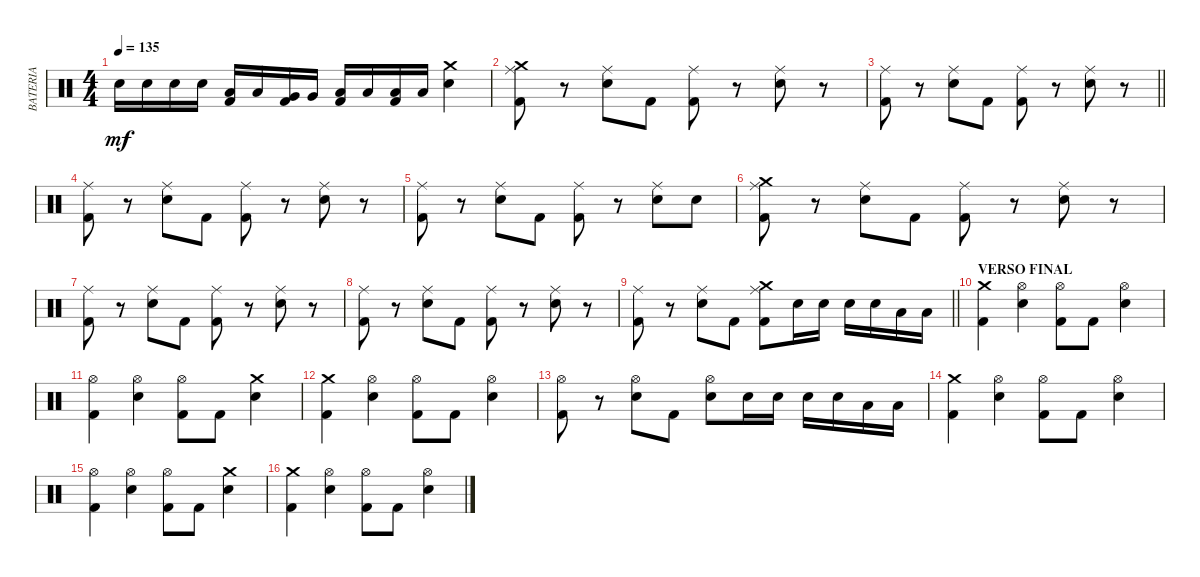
\track ("BATERIA" "BATERIA") {instrument percussion}
\staff {score}
\articulation defaults
\ts (4 4)
\tempo 135
\clef neutral
\ks c "Electric Snare (hit)".16{dy mf} "Electric Snare (hit)".16 "Electric Snare (hit)".16 "Electric Snare (hit)".16
("Low Tom (hit)" "Kick (hit) 2").16 "Low Tom (hit)".16 ("Very Low Tom (hit)" "Kick (hit) 2").16 "Very Low Tom (hit)".16 ("Low Floor Tom (hit)" "Kick (hit) 2").16 "Low Floor Tom (hit)".16 ("Low Floor Tom (hit)" "Kick (hit) 2").16 "Low Floor Tom (hit)".16 ("Crash medium (hit)" "Electric Snare (hit)").4 |
("Ride (middle)" "Kick (hit) 2" "Crash medium (hit)").8 r.8 ("Ride (middle)" "Electric Snare (hit)").8 "Kick (hit) 2".8 ("Ride (middle)" "Kick (hit) 2").8 r.8 ("Ride (middle)" "Electric Snare (hit)").8 r.8 |
\barLineRight lightlight
("Ride (middle)" "Kick (hit) 2").8 r.8 ("Ride (middle)" "Electric Snare (hit)").8 "Kick (hit) 2".8 ("Ride (middle)" "Kick (hit) 2").8 r.8 ("Ride (middle)" "Electric Snare (hit)").8 r.8 |
("Ride (middle)" "Kick (hit) 2").8 r.8 ("Ride (middle)" "Electric Snare (hit)").8 "Kick (hit) 2".8 ("Ride (middle)" "Kick (hit) 2").8 r.8 ("Ride (middle)" "Electric Snare (hit)").8 r.8 |
("Ride (middle)" "Kick (hit) 2").8 r.8 ("Ride (middle)" "Electric Snare (hit)").8 "Kick (hit) 2".8 ("Ride (middle)" "Kick (hit) 2").8 r.8 ("Ride (middle)" "Electric Snare (hit)").8 "Electric Snare (hit)".8 |
("Crash medium (hit)" "Ride (middle)" "Kick (hit) 2").8 r.8 ("Ride (middle)" "Electric Snare (hit)").8 "Kick (hit) 2".8 ("Ride (middle)" "Kick (hit) 2").8 r.8 ("Ride (middle)" "Electric Snare (hit)").8 r.8 |
("Ride (middle)" "Kick (hit) 2").8 r.8 ("Ride (middle)" "Electric Snare (hit)").8 "Kick (hit) 2".8 ("Ride (middle)" "Kick (hit) 2").8 r.8 ("Ride (middle)" "Electric Snare (hit)").8 r.8 |
("Ride (middle)" "Kick (hit) 2").8 r.8 ("Ride (middle)" "Electric Snare (hit)").8 "Kick (hit) 2".8 ("Ride (middle)" "Kick (hit) 2").8 r.8 ("Ride (middle)" "Electric Snare (hit)").8 r.8 |
\barLineRight lightlight
("Ride (middle)" "Kick (hit) 2").8 r.8 ("Ride (middle)" "Electric Snare (hit)").8 "Kick (hit) 2".8 ("Crash medium (hit)" "Ride (middle)" "Kick (hit) 2").8 "Electric Snare (hit)".16 "Electric Snare (hit)".16 "Electric Snare (hit)".16 "Electric Snare (hit)".16 "Low Tom (hit)".16 "Low Floor Tom (hit)".16 |
\section ("" "VERSO FINAL")
("Crash medium (hit)" "Kick (hit) 2").4 ("Hi-Hat (open)" "Electric Snare (hit)").4 ("Hi-Hat (open)" "Kick (hit) 2").8 "Kick (hit) 2".8 ("Hi-Hat (open)" "Electric Snare (hit)").4 |
("Hi-Hat (open)" "Kick (hit) 2").4 ("Hi-Hat (open)" "Electric Snare (hit)").4 ("Hi-Hat (open)" "Kick (hit) 2").8 "Kick (hit) 2".8 ("Crash medium (hit)" "Electric Snare (hit)").4 |
("Crash medium (hit)" "Kick (hit) 2").4 ("Hi-Hat (open)" "Electric Snare (hit)").4 ("Hi-Hat (open)" "Kick (hit) 2").8 "Kick (hit) 2".8 ("Hi-Hat (open)" "Electric Snare (hit)").4 |
("Hi-Hat (open)" "Kick (hit) 2").8 r.8 ("Hi-Hat (open)" "Electric Snare (hit)").8 "Kick (hit) 2".8 ("Hi-Hat (open)" "Electric Snare (hit)").8 "Electric Snare (hit)".16 "Electric Snare (hit)".16 "Electric Snare (hit)".16 "Electric Snare (hit)".16 "Low Tom (hit)".16 "Low Floor Tom (hit)".16 |
("Crash medium (hit)" "Kick (hit) 2").4 ("Hi-Hat (open)" "Electric Snare (hit)").4 ("Hi-Hat (open)" "Kick (hit) 2").8 "Kick (hit) 2".8 ("Hi-Hat (open)" "Electric Snare (hit)").4 |
("Hi-Hat (open)" "Kick (hit) 2").4 ("Hi-Hat (open)" "Electric Snare (hit)").4 ("Hi-Hat (open)" "Kick (hit) 2").8 "Kick (hit) 2".8 ("Crash medium (hit)" "Electric Snare (hit)").4 |
("Crash medium (hit)" "Kick (hit) 2").4 ("Hi-Hat (open)" "Electric Snare (hit)").4 ("Hi-Hat (open)" "Kick (hit) 2").8 "Kick (hit) 2".8 ("Hi-Hat (open)" "Electric Snare (hit)").4
